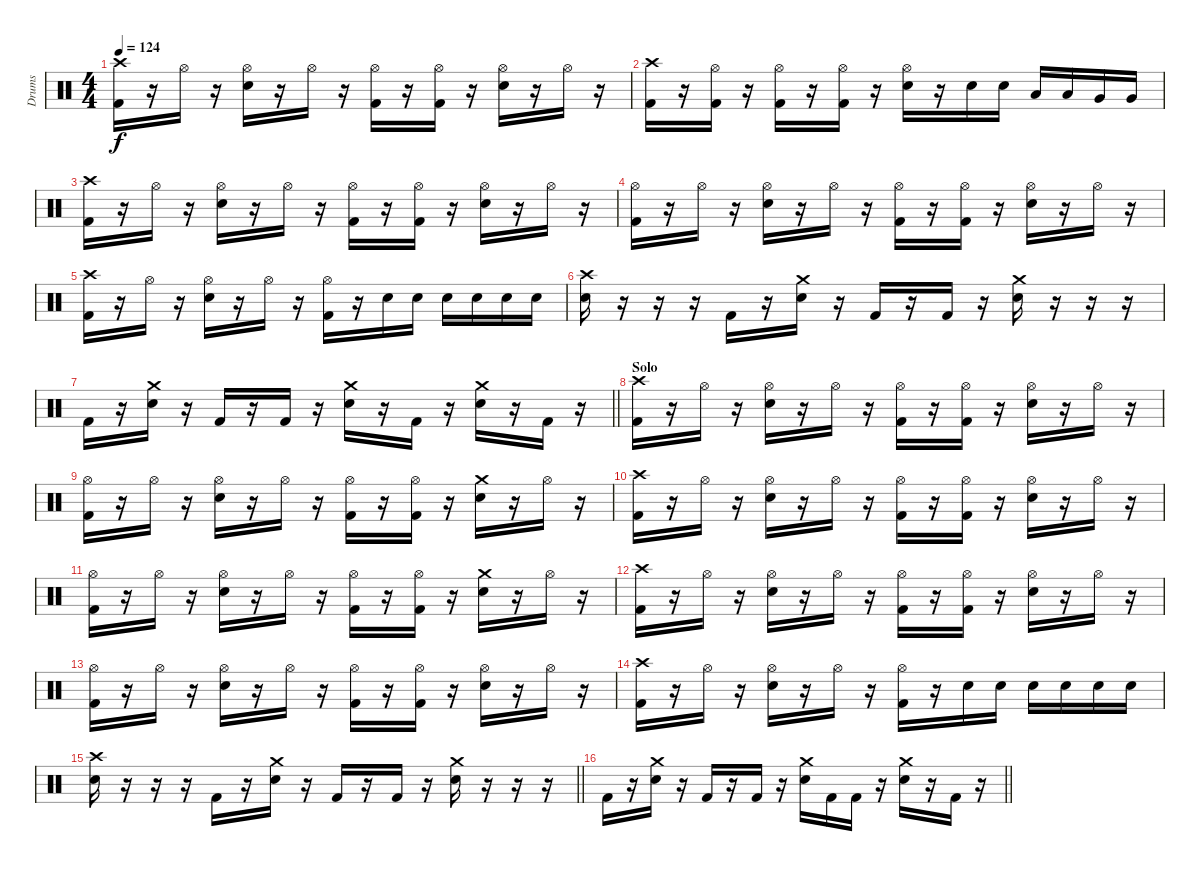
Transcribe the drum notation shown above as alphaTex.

\track ("Drums" "Drums") {instrument percussion}
\staff {score}
\articulation defaults
\ts (4 4)
\tempo 124
\clef neutral
\ks c
("Kick (hit) 2" "Crash high (hit)").16{dy f} r.16 "Hi-Hat (open)".16 r.16 ("Snare (hit) 2" "Hi-Hat (open)").16 r.16 "Hi-Hat (open)".16 r.16 ("Kick (hit) 2" "Hi-Hat (open)").16 r.16 ("Kick (hit) 2" "Hi-Hat (open)").16 r.16 ("Snare (hit) 2" "Hi-Hat (open)").16 r.16 "Hi-Hat (open)".16 r.16 |
("Kick (hit) 2" "Crash high (hit)").16 r.16 ("Kick (hit) 2" "Hi-Hat (open)").16 r.16 ("Kick (hit) 2" "Hi-Hat (open)").16 r.16 ("Kick (hit) 2" "Hi-Hat (open)").16 r.16 ("Snare (hit) 2" "Hi-Hat (open)").16 r.16 "Snare (hit) 2".16 "Snare (hit) 2".16 "Low Tom (hit)".16 "Low Tom (hit)".16 "Very Low Tom (hit)".16 "Very Low Tom (hit)".16 |
("Kick (hit) 2" "Crash high (hit)").16 r.16 "Hi-Hat (open)".16 r.16 ("Snare (hit) 2" "Hi-Hat (open)").16 r.16 "Hi-Hat (open)".16 r.16 ("Kick (hit) 2" "Hi-Hat (open)").16 r.16 ("Kick (hit) 2" "Hi-Hat (open)").16 r.16 ("Snare (hit) 2" "Hi-Hat (open)").16 r.16 "Hi-Hat (open)".16 r.16 |
("Kick (hit) 2" "Hi-Hat (open)").16 r.16 "Hi-Hat (open)".16 r.16 ("Snare (hit) 2" "Hi-Hat (open)").16 r.16 "Hi-Hat (open)".16 r.16 ("Kick (hit) 2" "Hi-Hat (open)").16 r.16 ("Kick (hit) 2" "Hi-Hat (open)").16 r.16 ("Snare (hit) 2" "Hi-Hat (open)").16 r.16 "Hi-Hat (open)".16 r.16 |
("Kick (hit) 2" "Crash high (hit)").16 r.16 "Hi-Hat (open)".16 r.16 ("Snare (hit) 2" "Hi-Hat (open)").16 r.16 "Hi-Hat (open)".16 r.16 ("Kick (hit) 2" "Hi-Hat (open)").16 r.16 "Snare (hit) 2".16 "Snare (hit) 2".16 "Snare (hit) 2".16 "Snare (hit) 2".16 "Snare (hit) 2".16 "Snare (hit) 2".16 |
("Snare (hit) 2" "Crash high (hit)").16 r.16 r.16 r.16 "Kick (hit) 2".16 r.16 ("Snare (hit) 2" "Crash medium (hit)").16 r.16 "Kick (hit) 2".16 r.16 "Kick (hit) 2".16 r.16 ("Snare (hit) 2" "Crash medium (hit)").16 r.16 r.16 r.16 |
\barLineRight lightlight "Kick (hit) 2".16
r.16 ("Snare (hit) 2" "Crash medium (hit)").16 r.16 "Kick (hit) 2".16 r.16 "Kick (hit) 2".16 r.16 ("Snare (hit) 2" "Crash medium (hit)").16 r.16 "Kick (hit) 2".16 r.16 ("Snare (hit) 2" "Crash medium (hit)").16 r.16 "Kick (hit) 2".16 r.16 |
\section ("" "Solo")
("Kick (hit) 2" "Crash high (hit)").16 r.16 "Hi-Hat (open)".16 r.16 ("Snare (hit) 2" "Hi-Hat (open)").16 r.16 "Hi-Hat (open)".16 r.16 ("Kick (hit) 2" "Hi-Hat (open)").16 r.16 ("Kick (hit) 2" "Hi-Hat (open)").16 r.16 ("Snare (hit) 2" "Hi-Hat (open)").16 r.16 "Hi-Hat (open)".16 r.16 |
("Kick (hit) 2" "Hi-Hat (open)").16 r.16 "Hi-Hat (open)".16 r.16 ("Snare (hit) 2" "Hi-Hat (open)").16 r.16 "Hi-Hat (open)".16 r.16 ("Kick (hit) 2" "Hi-Hat (open)").16 r.16 ("Kick (hit) 2" "Hi-Hat (open)").16 r.16 ("Snare (hit) 2" "Crash medium (hit)").16 r.16 "Hi-Hat (open)".16 r.16 |
("Kick (hit) 2" "Crash high (hit)").16 r.16 "Hi-Hat (open)".16 r.16 ("Snare (hit) 2" "Hi-Hat (open)").16 r.16 "Hi-Hat (open)".16 r.16 ("Kick (hit) 2" "Hi-Hat (open)").16 r.16 ("Kick (hit) 2" "Hi-Hat (open)").16 r.16 ("Snare (hit) 2" "Hi-Hat (open)").16 r.16 "Hi-Hat (open)".16 r.16 |
("Kick (hit) 2" "Hi-Hat (open)").16 r.16 "Hi-Hat (open)".16 r.16 ("Snare (hit) 2" "Hi-Hat (open)").16 r.16 "Hi-Hat (open)".16 r.16 ("Kick (hit) 2" "Hi-Hat (open)").16 r.16 ("Kick (hit) 2" "Hi-Hat (open)").16 r.16 ("Snare (hit) 2" "Crash medium (hit)").16 r.16 "Hi-Hat (open)".16 r.16 |
("Kick (hit) 2" "Crash high (hit)").16 r.16 "Hi-Hat (open)".16 r.16 ("Snare (hit) 2" "Hi-Hat (open)").16 r.16 "Hi-Hat (open)".16 r.16 ("Kick (hit) 2" "Hi-Hat (open)").16 r.16 ("Kick (hit) 2" "Hi-Hat (open)").16 r.16 ("Snare (hit) 2" "Hi-Hat (open)").16 r.16 "Hi-Hat (open)".16 r.16 |
("Kick (hit) 2" "Hi-Hat (open)").16 r.16 "Hi-Hat (open)".16 r.16 ("Snare (hit) 2" "Hi-Hat (open)").16 r.16 "Hi-Hat (open)".16 r.16 ("Kick (hit) 2" "Hi-Hat (open)").16 r.16 ("Kick (hit) 2" "Hi-Hat (open)").16 r.16 ("Snare (hit) 2" "Hi-Hat (open)").16 r.16 "Hi-Hat (open)".16 r.16 |
("Kick (hit) 2" "Crash high (hit)").16 r.16 "Hi-Hat (open)".16 r.16 ("Snare (hit) 2" "Hi-Hat (open)").16 r.16 "Hi-Hat (open)".16 r.16 ("Kick (hit) 2" "Hi-Hat (open)").16 r.16 "Snare (hit) 2".16 "Snare (hit) 2".16 "Snare (hit) 2".16 "Snare (hit) 2".16 "Snare (hit) 2".16 "Snare (hit) 2".16 |
\barLineRight lightlight
("Snare (hit) 2" "Crash high (hit)").16 r.16 r.16 r.16 "Kick (hit) 2".16 r.16 ("Snare (hit) 2" "Crash medium (hit)").16 r.16 "Kick (hit) 2".16 r.16 "Kick (hit) 2".16 r.16 ("Snare (hit) 2" "Crash medium (hit)").16 r.16 r.16 r.16 |
\barLineRight lightlight "Kick (hit) 2".16
r.16 ("Snare (hit) 2" "Crash medium (hit)").16 r.16 "Kick (hit) 2".16 r.16 "Kick (hit) 2".16 r.16 ("Snare (hit) 2" "Crash medium (hit)").16 "Kick (hit) 2".16 "Kick (hit) 2".16 r.16 ("Snare (hit) 2" "Crash medium (hit)").16 r.16 "Kick (hit) 2".16 r.16
